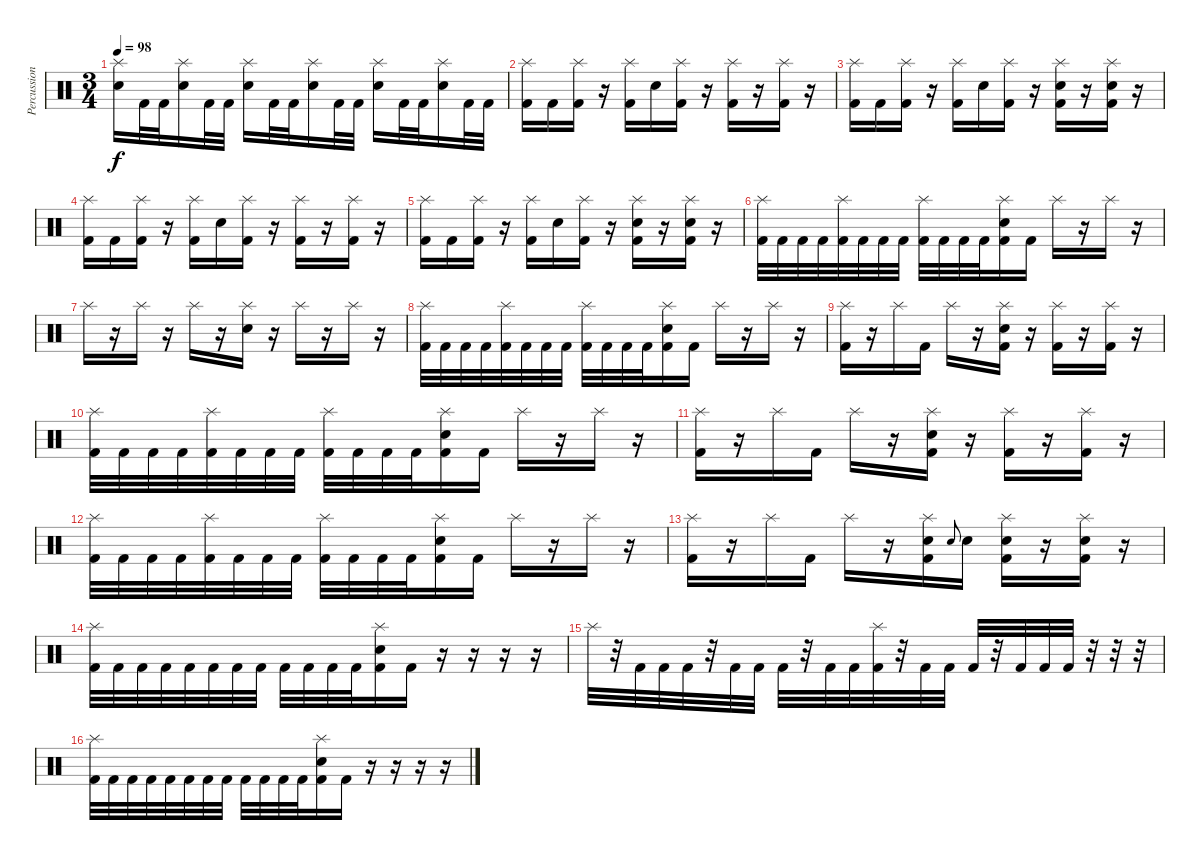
\track ("Percussion" "Percussion") {instrument percussion}
\staff {score}
\articulation defaults
\ts (3 4)
\tempo 98
\clef neutral
\ks c
("Splash (hit)" "Snare (hit) 2").16{dy f} "Kick (hit) 2".32 "Kick (hit) 2".32 ("Splash (hit)" "Snare (hit) 2").16 "Kick (hit) 2".32 "Kick (hit) 2".32 ("Splash (hit)" "Snare (hit) 2").16 "Kick (hit) 2".32 "Kick (hit) 2".32 ("Splash (hit)" "Snare (hit) 2").16 "Kick (hit) 2".32 "Kick (hit) 2".32 ("Splash (hit)" "Snare (hit) 2").16 "Kick (hit) 2".32 "Kick (hit) 2".32 ("Splash (hit)" "Snare (hit) 2").16 "Kick (hit) 2".32 "Kick (hit) 2".32 |
("Splash (hit)" "Kick (hit) 2").16 "Kick (hit) 2".16 ("Splash (hit)" "Kick (hit) 2").16 r.16 ("Splash (hit)" "Kick (hit) 2").16 "Snare (hit) 2".16 ("Splash (hit)" "Kick (hit) 2").16 r.16 ("Splash (hit)" "Kick (hit) 2").16 r.16 ("Splash (hit)" "Kick (hit) 2").16 r.16 |
("Splash (hit)" "Kick (hit) 2").16 "Kick (hit) 2".16 ("Splash (hit)" "Kick (hit) 2").16 r.16 ("Splash (hit)" "Kick (hit) 2").16 "Snare (hit) 2".16 ("Splash (hit)" "Kick (hit) 2").16 r.16 ("Splash (hit)" "Snare (hit) 2" "Kick (hit) 2").16 r.16 ("Splash (hit)" "Snare (hit) 2" "Kick (hit) 2").16 r.16 |
("Splash (hit)" "Kick (hit) 2").16 "Kick (hit) 2".16 ("Splash (hit)" "Kick (hit) 2").16 r.16 ("Splash (hit)" "Kick (hit) 2").16 "Snare (hit) 2".16 ("Splash (hit)" "Kick (hit) 2").16 r.16 ("Splash (hit)" "Kick (hit) 2").16 r.16 ("Splash (hit)" "Kick (hit) 2").16 r.16 |
("Splash (hit)" "Kick (hit) 2").16 "Kick (hit) 2".16 ("Splash (hit)" "Kick (hit) 2").16 r.16 ("Splash (hit)" "Kick (hit) 2").16 "Snare (hit) 2".16 ("Splash (hit)" "Kick (hit) 2").16 r.16 ("Splash (hit)" "Snare (hit) 2" "Kick (hit) 2").16 r.16 ("Splash (hit)" "Snare (hit) 2" "Kick (hit) 2").16 r.16 |
("Splash (hit)" "Kick (hit) 2").32 "Kick (hit) 2".32 "Kick (hit) 2".32 "Kick (hit) 2".32 ("Splash (hit)" "Kick (hit) 2").32 "Kick (hit) 2".32 "Kick (hit) 2".32 "Kick (hit) 2".32 ("Splash (hit)" "Kick (hit) 2").32 "Kick (hit) 2".32 "Kick (hit) 2".32 "Kick (hit) 2".32 ("Splash (hit)" "Snare (hit) 2" "Kick (hit) 2").16 "Kick (hit) 2".16 "Splash (hit)".16 r.16 "Splash (hit)".16 r.16 |
"Splash (hit)".16 r.16 "Splash (hit)".16 r.16 "Splash (hit)".16 r.16 ("Splash (hit)" "Snare (hit) 2").16 r.16 "Splash (hit)".16 r.16 "Splash (hit)".16 r.16 |
("Splash (hit)" "Kick (hit) 2").32 "Kick (hit) 2".32 "Kick (hit) 2".32 "Kick (hit) 2".32 ("Splash (hit)" "Kick (hit) 2").32 "Kick (hit) 2".32 "Kick (hit) 2".32 "Kick (hit) 2".32 ("Splash (hit)" "Kick (hit) 2").32 "Kick (hit) 2".32 "Kick (hit) 2".32 "Kick (hit) 2".32 ("Splash (hit)" "Snare (hit) 2" "Kick (hit) 2").16 "Kick (hit) 2".16 "Splash (hit)".16 r.16 "Splash (hit)".16 r.16 |
("Splash (hit)" "Kick (hit) 2").16 r.16 "Splash (hit)".16 "Kick (hit) 2".16 "Splash (hit)".16 r.16 ("Splash (hit)" "Snare (hit) 2" "Kick (hit) 2").16 r.16 ("Splash (hit)" "Kick (hit) 2").16 r.16 ("Splash (hit)" "Kick (hit) 2").16 r.16 |
("Splash (hit)" "Kick (hit) 2").32 "Kick (hit) 2".32 "Kick (hit) 2".32 "Kick (hit) 2".32 ("Splash (hit)" "Kick (hit) 2").32 "Kick (hit) 2".32 "Kick (hit) 2".32 "Kick (hit) 2".32 ("Splash (hit)" "Kick (hit) 2").32 "Kick (hit) 2".32 "Kick (hit) 2".32 "Kick (hit) 2".32 ("Splash (hit)" "Snare (hit) 2" "Kick (hit) 2").16 "Kick (hit) 2".16 "Splash (hit)".16 r.16 "Splash (hit)".16 r.16 |
("Splash (hit)" "Kick (hit) 2").16 r.16 "Splash (hit)".16 "Kick (hit) 2".16 "Splash (hit)".16 r.16 ("Splash (hit)" "Snare (hit) 2" "Kick (hit) 2").16 r.16 ("Splash (hit)" "Kick (hit) 2").16 r.16 ("Splash (hit)" "Kick (hit) 2").16 r.16 |
("Splash (hit)" "Kick (hit) 2").32 "Kick (hit) 2".32 "Kick (hit) 2".32 "Kick (hit) 2".32 ("Splash (hit)" "Kick (hit) 2").32 "Kick (hit) 2".32 "Kick (hit) 2".32 "Kick (hit) 2".32 ("Splash (hit)" "Kick (hit) 2").32 "Kick (hit) 2".32 "Kick (hit) 2".32 "Kick (hit) 2".32 ("Splash (hit)" "Snare (hit) 2" "Kick (hit) 2").16 "Kick (hit) 2".16 "Splash (hit)".16 r.16 "Splash (hit)".16 r.16 |
("Splash (hit)" "Kick (hit) 2").16 r.16 "Splash (hit)".16 "Kick (hit) 2".16 "Splash (hit)".16 r.16 ("Splash (hit)" "Snare (hit) 2" "Kick (hit) 2").16 "Snare (hit) 2".8{gr onbeat} "Snare (hit) 2".16 ("Splash (hit)" "Snare (hit) 2" "Kick (hit) 2").16 r.16 ("Splash (hit)" "Snare (hit) 2" "Kick (hit) 2").16 r.16 |
("Splash (hit)" "Kick (hit) 2").32 "Kick (hit) 2".32 "Kick (hit) 2".32 "Kick (hit) 2".32 "Kick (hit) 2".32 "Kick (hit) 2".32 "Kick (hit) 2".32 "Kick (hit) 2".32 "Kick (hit) 2".32 "Kick (hit) 2".32 "Kick (hit) 2".32 "Kick (hit) 2".32 ("Splash (hit)" "Snare (hit) 2" "Kick (hit) 2").16 "Kick (hit) 2".16 r.16 r.16 r.16 r.16 |
"Splash (hit)".32 r.32 "Kick (hit) 2".32 "Kick (hit) 2".32 "Kick (hit) 2".32 r.32 "Kick (hit) 2".32 "Kick (hit) 2".32 "Kick (hit) 2".32 r.32 "Kick (hit) 2".32 "Kick (hit) 2".32 ("Splash (hit)" "Kick (hit) 2").32 r.32 "Kick (hit) 2".32 "Kick (hit) 2".32 "Kick (hit) 2".32 r.32 "Kick (hit) 2".32 "Kick (hit) 2".32 "Kick (hit) 2".32 r.32 r.32 r.32 |
("Splash (hit)" "Kick (hit) 2").32 "Kick (hit) 2".32 "Kick (hit) 2".32 "Kick (hit) 2".32 "Kick (hit) 2".32 "Kick (hit) 2".32 "Kick (hit) 2".32 "Kick (hit) 2".32 "Kick (hit) 2".32 "Kick (hit) 2".32 "Kick (hit) 2".32 "Kick (hit) 2".32 ("Splash (hit)" "Snare (hit) 2" "Kick (hit) 2").16 "Kick (hit) 2".16 r.16 r.16 r.16 r.16
